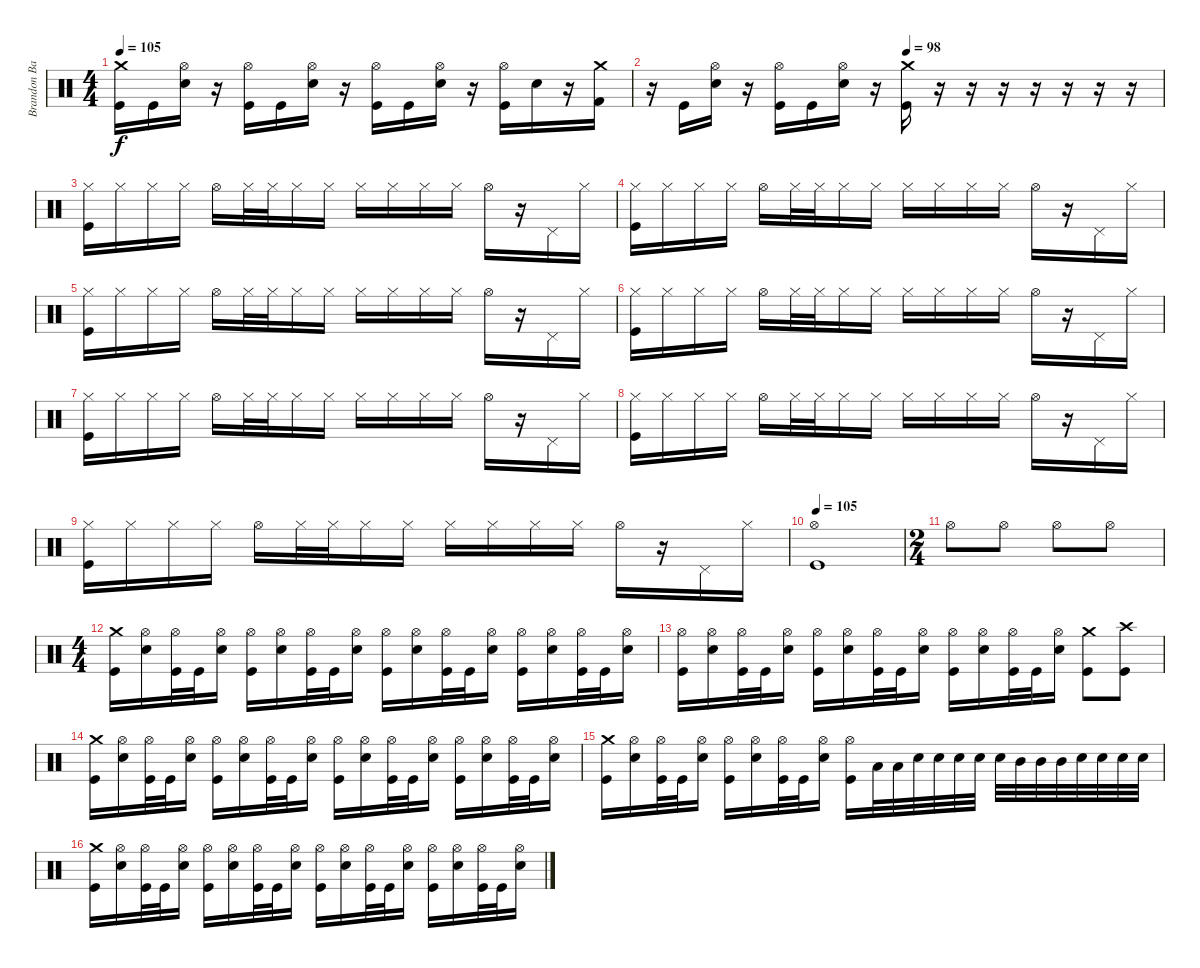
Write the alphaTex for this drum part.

\track ("Brandon Barnes" "Brandon Ba") {instrument percussion}
\staff {score}
\articulation defaults
\ts (4 4)
\tempo 105
\clef neutral
\ks c
("Crash medium (hit)" "Kick (hit)").16{dy f} "Kick (hit)".16 ("Hi-Hat (open)" "Electric Snare (hit)").16 r.16 ("Hi-Hat (open)" "Kick (hit)").16 "Kick (hit)".16 ("Hi-Hat (open)" "Electric Snare (hit)").16 r.16 ("Hi-Hat (open)" "Kick (hit)").16 "Kick (hit)".16 ("Hi-Hat (open)" "Electric Snare (hit)").16 r.16 ("Hi-Hat (open)" "Kick (hit)").16 "Electric Snare (hit)".16 r.16 ("Crash medium (hit)" "Kick (hit) 2").16 |
\tempo (98 0.5)
r.16 "Kick (hit)".16 ("Hi-Hat (open)" "Electric Snare (hit)").16 r.16 ("Hi-Hat (open)" "Kick (hit)").16 "Kick (hit)".16 ("Hi-Hat (open)" "Electric Snare (hit)").16 r.16 ("Crash medium (hit)" "Kick (hit)").16 r.16 r.16 r.16 r.16 r.16 r.16 r.16 |
("Hi-Hat (closed)" "Kick (hit)").16 "Hi-Hat (closed)".16 "Hi-Hat (closed)".16 "Hi-Hat (closed)".16 "Hi-Hat (open)".16 "Hi-Hat (closed)".32 "Hi-Hat (closed)".32 "Hi-Hat (closed)".16 "Hi-Hat (closed)".16 "Hi-Hat (closed)".16 "Hi-Hat (closed)".16 "Hi-Hat (closed)".16 "Hi-Hat (closed)".16 "Hi-Hat (open)".16 r.16 "Pedal Hi-Hat (hit)".16 "Hi-Hat (closed)".16 |
("Hi-Hat (closed)" "Kick (hit)").16 "Hi-Hat (closed)".16 "Hi-Hat (closed)".16 "Hi-Hat (closed)".16 "Hi-Hat (open)".16 "Hi-Hat (closed)".32 "Hi-Hat (closed)".32 "Hi-Hat (closed)".16 "Hi-Hat (closed)".16 "Hi-Hat (closed)".16 "Hi-Hat (closed)".16 "Hi-Hat (closed)".16 "Hi-Hat (closed)".16 "Hi-Hat (open)".16 r.16 "Pedal Hi-Hat (hit)".16 "Hi-Hat (closed)".16 |
("Hi-Hat (closed)" "Kick (hit)").16 "Hi-Hat (closed)".16 "Hi-Hat (closed)".16 "Hi-Hat (closed)".16 "Hi-Hat (open)".16 "Hi-Hat (closed)".32 "Hi-Hat (closed)".32 "Hi-Hat (closed)".16 "Hi-Hat (closed)".16 "Hi-Hat (closed)".16 "Hi-Hat (closed)".16 "Hi-Hat (closed)".16 "Hi-Hat (closed)".16 "Hi-Hat (open)".16 r.16 "Pedal Hi-Hat (hit)".16 "Hi-Hat (closed)".16 |
("Hi-Hat (closed)" "Kick (hit)").16 "Hi-Hat (closed)".16 "Hi-Hat (closed)".16 "Hi-Hat (closed)".16 "Hi-Hat (open)".16 "Hi-Hat (closed)".32 "Hi-Hat (closed)".32 "Hi-Hat (closed)".16 "Hi-Hat (closed)".16 "Hi-Hat (closed)".16 "Hi-Hat (closed)".16 "Hi-Hat (closed)".16 "Hi-Hat (closed)".16 "Hi-Hat (open)".16 r.16 "Pedal Hi-Hat (hit)".16 "Hi-Hat (closed)".16 |
("Hi-Hat (closed)" "Kick (hit)").16 "Hi-Hat (closed)".16 "Hi-Hat (closed)".16 "Hi-Hat (closed)".16 "Hi-Hat (open)".16 "Hi-Hat (closed)".32 "Hi-Hat (closed)".32 "Hi-Hat (closed)".16 "Hi-Hat (closed)".16 "Hi-Hat (closed)".16 "Hi-Hat (closed)".16 "Hi-Hat (closed)".16 "Hi-Hat (closed)".16 "Hi-Hat (open)".16 r.16 "Pedal Hi-Hat (hit)".16 "Hi-Hat (closed)".16 |
("Hi-Hat (closed)" "Kick (hit)").16 "Hi-Hat (closed)".16 "Hi-Hat (closed)".16 "Hi-Hat (closed)".16 "Hi-Hat (open)".16 "Hi-Hat (closed)".32 "Hi-Hat (closed)".32 "Hi-Hat (closed)".16 "Hi-Hat (closed)".16 "Hi-Hat (closed)".16 "Hi-Hat (closed)".16 "Hi-Hat (closed)".16 "Hi-Hat (closed)".16 "Hi-Hat (open)".16 r.16 "Pedal Hi-Hat (hit)".16 "Hi-Hat (closed)".16 |
("Hi-Hat (closed)" "Kick (hit)").16 "Hi-Hat (closed)".16 "Hi-Hat (closed)".16 "Hi-Hat (closed)".16 "Hi-Hat (open)".16 "Hi-Hat (closed)".32 "Hi-Hat (closed)".32 "Hi-Hat (closed)".16 "Hi-Hat (closed)".16 "Hi-Hat (closed)".16 "Hi-Hat (closed)".16 "Hi-Hat (closed)".16 "Hi-Hat (closed)".16 "Hi-Hat (open)".16 r.16 "Pedal Hi-Hat (hit)".16 "Hi-Hat (closed)".16 |
\tempo 105
("Hi-Hat (open)" "Kick (hit)").1 |
\ts (2 4)
"Hi-Hat (open)".8 "Hi-Hat (open)".8 "Hi-Hat (open)".8 "Hi-Hat (open)".8 |
\ts (4 4)
("Crash medium (hit)" "Kick (hit)").16 ("Hi-Hat (open)" "Electric Snare (hit)").16 ("Hi-Hat (open)" "Kick (hit)").32 "Kick (hit)".32 ("Hi-Hat (open)" "Electric Snare (hit)").16 ("Hi-Hat (open)" "Kick (hit)").16 ("Hi-Hat (open)" "Electric Snare (hit)").16 ("Hi-Hat (open)" "Kick (hit)").32 "Kick (hit)".32 ("Hi-Hat (open)" "Electric Snare (hit)").16 ("Hi-Hat (open)" "Kick (hit)").16 ("Hi-Hat (open)" "Electric Snare (hit)").16 ("Hi-Hat (open)" "Kick (hit)").32 "Kick (hit)".32 ("Hi-Hat (open)" "Electric Snare (hit)").16 ("Hi-Hat (open)" "Kick (hit)").16 ("Hi-Hat (open)" "Electric Snare (hit)").16 ("Hi-Hat (open)" "Kick (hit)").32 "Kick (hit)".32 ("Hi-Hat (open)" "Electric Snare (hit)").16 |
("Hi-Hat (open)" "Kick (hit)").16 ("Hi-Hat (open)" "Electric Snare (hit)").16 ("Hi-Hat (open)" "Kick (hit)").32 "Kick (hit)".32 ("Hi-Hat (open)" "Electric Snare (hit)").16 ("Hi-Hat (open)" "Kick (hit)").16 ("Hi-Hat (open)" "Electric Snare (hit)").16 ("Hi-Hat (open)" "Kick (hit)").32 "Kick (hit)".32 ("Hi-Hat (open)" "Electric Snare (hit)").16 ("Hi-Hat (open)" "Kick (hit)").16 ("Hi-Hat (open)" "Electric Snare (hit)").16 ("Hi-Hat (open)" "Kick (hit)").32 "Kick (hit)".32 ("Hi-Hat (open)" "Electric Snare (hit)").16 ("Crash medium (hit)" "Kick (hit)").8 ("Crash high (hit)" "Kick (hit)").8 |
("Crash medium (hit)" "Kick (hit)").16 ("Hi-Hat (open)" "Electric Snare (hit)").16 ("Hi-Hat (open)" "Kick (hit)").32 "Kick (hit)".32 ("Hi-Hat (open)" "Electric Snare (hit)").16 ("Hi-Hat (open)" "Kick (hit)").16 ("Hi-Hat (open)" "Electric Snare (hit)").16 ("Hi-Hat (open)" "Kick (hit)").32 "Kick (hit)".32 ("Hi-Hat (open)" "Electric Snare (hit)").16 ("Hi-Hat (open)" "Kick (hit)").16 ("Hi-Hat (open)" "Electric Snare (hit)").16 ("Hi-Hat (open)" "Kick (hit)").32 "Kick (hit)".32 ("Hi-Hat (open)" "Electric Snare (hit)").16 ("Hi-Hat (open)" "Kick (hit)").16 ("Hi-Hat (open)" "Electric Snare (hit)").16 ("Hi-Hat (open)" "Kick (hit)").32 "Kick (hit)".32 ("Hi-Hat (open)" "Electric Snare (hit)").16 |
("Crash medium (hit)" "Kick (hit)").16 ("Hi-Hat (open)" "Electric Snare (hit)").16 ("Hi-Hat (open)" "Kick (hit)").32 "Kick (hit)".32 ("Hi-Hat (open)" "Electric Snare (hit)").16 ("Hi-Hat (open)" "Kick (hit)").16 ("Hi-Hat (open)" "Electric Snare (hit)").16 ("Hi-Hat (open)" "Kick (hit)").32 "Kick (hit)".32 ("Hi-Hat (open)" "Electric Snare (hit)").16 ("Hi-Hat (open)" "Kick (hit)").16 "Low Tom (hit)".32 "Low Tom (hit)".32 "Electric Snare (hit)".32 "Electric Snare (hit)".32 "Electric Snare (hit)".32 "Electric Snare (hit)".32 "Electric Snare (hit)".32 "Mid Tom (hit)".32 "Mid Tom (hit)".32 "Mid Tom (hit)".32 "Electric Snare (hit)".32 "Electric Snare (hit)".32 "Electric Snare (hit)".32 "Electric Snare (hit)".32 |
("Crash medium (hit)" "Kick (hit)").16 ("Hi-Hat (open)" "Electric Snare (hit)").16 ("Hi-Hat (open)" "Kick (hit)").32 "Kick (hit)".32 ("Hi-Hat (open)" "Electric Snare (hit)").16 ("Hi-Hat (open)" "Kick (hit)").16 ("Hi-Hat (open)" "Electric Snare (hit)").16 ("Hi-Hat (open)" "Kick (hit)").32 "Kick (hit)".32 ("Hi-Hat (open)" "Electric Snare (hit)").16 ("Hi-Hat (open)" "Kick (hit)").16 ("Hi-Hat (open)" "Electric Snare (hit)").16 ("Hi-Hat (open)" "Kick (hit)").32 "Kick (hit)".32 ("Hi-Hat (open)" "Electric Snare (hit)").16 ("Hi-Hat (open)" "Kick (hit)").16 ("Hi-Hat (open)" "Electric Snare (hit)").16 ("Hi-Hat (open)" "Kick (hit)").32 "Kick (hit)".32 ("Hi-Hat (open)" "Electric Snare (hit)").16
